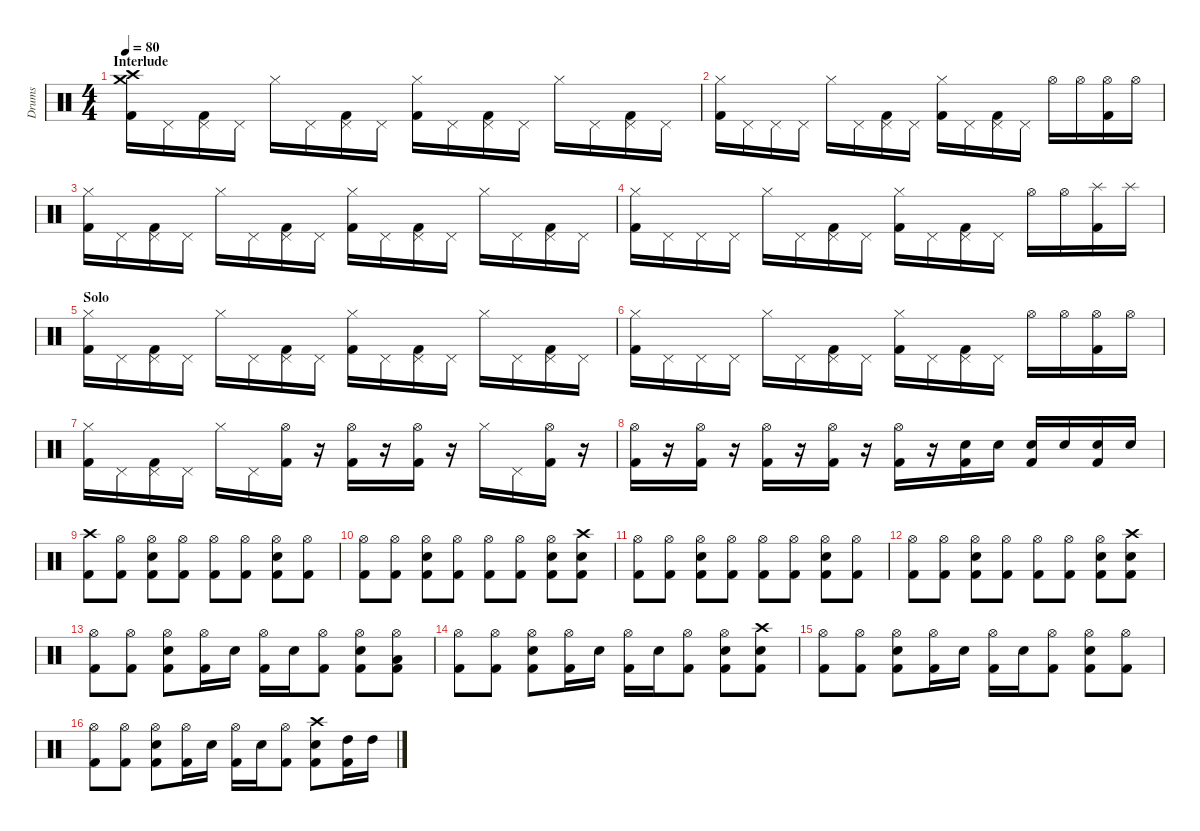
\hideDynamics
\bracketExtendMode nobrackets
\otherSystemsTrackNameOrientation horizontal
\track ("Drumkit" "Drums") {instrument percussion}
\staff {score}
\articulation defaults
\ts (4 4)
\section ("" "Interlude")
\tempo 80
\clef neutral
\ks c
("Kick (hit) 2" "Crash high (hit)" "Crash medium (hit)").16{dy f beam Down} "Pedal Hi-Hat (hit)".16{beam Down} ("Kick (hit) 2" "Pedal Hi-Hat (hit)").16{beam Down} "Pedal Hi-Hat (hit)".16{beam Down} "Hi-Hat (closed)".16{beam Down} "Pedal Hi-Hat (hit)".16{beam Down} ("Kick (hit) 2" "Pedal Hi-Hat (hit)").16{beam Down} "Pedal Hi-Hat (hit)".16{beam Down} ("Kick (hit) 2" "Hi-Hat (closed)").16{beam Down} "Pedal Hi-Hat (hit)".16{beam Down} ("Kick (hit) 2" "Pedal Hi-Hat (hit)").16{beam Down} "Pedal Hi-Hat (hit)".16{beam Down} "Hi-Hat (closed)".16{beam Down} "Pedal Hi-Hat (hit)".16{beam Down} ("Kick (hit) 2" "Pedal Hi-Hat (hit)").16{beam Down} "Pedal Hi-Hat (hit)".16{beam Down} |
("Kick (hit) 2" "Hi-Hat (closed)").16{beam Down} "Pedal Hi-Hat (hit)".16{beam Down} "Pedal Hi-Hat (hit)".16{beam Down} "Pedal Hi-Hat (hit)".16{beam Down} "Hi-Hat (closed)".16{beam Down} "Pedal Hi-Hat (hit)".16{beam Down} ("Kick (hit) 2" "Pedal Hi-Hat (hit)").16{beam Down} "Pedal Hi-Hat (hit)".16{beam Down} ("Kick (hit) 2" "Hi-Hat (closed)").16{beam Down} "Pedal Hi-Hat (hit)".16{beam Down} ("Kick (hit) 2" "Pedal Hi-Hat (hit)").16{beam Down} "Pedal Hi-Hat (hit)".16{beam Down} "Hi-Hat (open)".16{beam Down} "Hi-Hat (open)".16{beam Down} ("Kick (hit) 2" "Hi-Hat (open)").16{beam Down} "Hi-Hat (open)".16{beam Down} |
("Kick (hit) 2" "Hi-Hat (closed)").16{beam Down} "Pedal Hi-Hat (hit)".16{beam Down} ("Kick (hit) 2" "Pedal Hi-Hat (hit)").16{beam Down} "Pedal Hi-Hat (hit)".16{beam Down} "Hi-Hat (closed)".16{beam Down} "Pedal Hi-Hat (hit)".16{beam Down} ("Kick (hit) 2" "Pedal Hi-Hat (hit)").16{beam Down} "Pedal Hi-Hat (hit)".16{beam Down} ("Kick (hit) 2" "Hi-Hat (closed)").16{beam Down} "Pedal Hi-Hat (hit)".16{beam Down} ("Kick (hit) 2" "Pedal Hi-Hat (hit)").16{beam Down} "Pedal Hi-Hat (hit)".16{beam Down} "Hi-Hat (closed)".16{beam Down} "Pedal Hi-Hat (hit)".16{beam Down} ("Kick (hit) 2" "Pedal Hi-Hat (hit)").16{beam Down} "Pedal Hi-Hat (hit)".16{beam Down} |
("Kick (hit) 2" "Hi-Hat (closed)").16{beam Down} "Pedal Hi-Hat (hit)".16{beam Down} "Pedal Hi-Hat (hit)".16{beam Down} "Pedal Hi-Hat (hit)".16{beam Down} "Hi-Hat (closed)".16{beam Down} "Pedal Hi-Hat (hit)".16{beam Down} ("Kick (hit) 2" "Pedal Hi-Hat (hit)").16{beam Down} "Pedal Hi-Hat (hit)".16{beam Down} ("Kick (hit) 2" "Hi-Hat (closed)").16{beam Down} "Pedal Hi-Hat (hit)".16{beam Down} ("Kick (hit) 2" "Pedal Hi-Hat (hit)").16{beam Down} "Pedal Hi-Hat (hit)".16{beam Down} "Hi-Hat (open)".16{beam Down} "Hi-Hat (open)".16{beam Down} ("Kick (hit) 2" "Splash (hit)").16{beam Down} "Splash (hit)".16{beam Down} |
\section ("" "Solo")
("Kick (hit) 2" "Hi-Hat (closed)").16{beam Down} "Pedal Hi-Hat (hit)".16{beam Down} ("Kick (hit) 2" "Pedal Hi-Hat (hit)").16{beam Down} "Pedal Hi-Hat (hit)".16{beam Down} "Hi-Hat (closed)".16{beam Down} "Pedal Hi-Hat (hit)".16{beam Down} ("Kick (hit) 2" "Pedal Hi-Hat (hit)").16{beam Down} "Pedal Hi-Hat (hit)".16{beam Down} ("Kick (hit) 2" "Hi-Hat (closed)").16{beam Down} "Pedal Hi-Hat (hit)".16{beam Down} ("Kick (hit) 2" "Pedal Hi-Hat (hit)").16{beam Down} "Pedal Hi-Hat (hit)".16{beam Down} "Hi-Hat (closed)".16{beam Down} "Pedal Hi-Hat (hit)".16{beam Down} ("Kick (hit) 2" "Pedal Hi-Hat (hit)").16{beam Down} "Pedal Hi-Hat (hit)".16{beam Down} |
("Kick (hit) 2" "Hi-Hat (closed)").16{beam Down} "Pedal Hi-Hat (hit)".16{beam Down} "Pedal Hi-Hat (hit)".16{beam Down} "Pedal Hi-Hat (hit)".16{beam Down} "Hi-Hat (closed)".16{beam Down} "Pedal Hi-Hat (hit)".16{beam Down} ("Kick (hit) 2" "Pedal Hi-Hat (hit)").16{beam Down} "Pedal Hi-Hat (hit)".16{beam Down} ("Kick (hit) 2" "Hi-Hat (closed)").16{beam Down} "Pedal Hi-Hat (hit)".16{beam Down} ("Kick (hit) 2" "Pedal Hi-Hat (hit)").16{beam Down} "Pedal Hi-Hat (hit)".16{beam Down} "Hi-Hat (open)".16{beam Down} "Hi-Hat (open)".16{beam Down} ("Kick (hit) 2" "Hi-Hat (open)").16{beam Down} "Hi-Hat (open)".16{beam Down} |
("Kick (hit) 2" "Hi-Hat (closed)").16{beam Down} "Pedal Hi-Hat (hit)".16{beam Down} ("Kick (hit) 2" "Pedal Hi-Hat (hit)").16{beam Down} "Pedal Hi-Hat (hit)".16{beam Down} "Hi-Hat (closed)".16{beam Down} "Pedal Hi-Hat (hit)".16{beam Down} ("Kick (hit) 2" "Hi-Hat (open)").16{beam Down} r.16{beam Down} ("Kick (hit) 2" "Hi-Hat (open)").16{beam Down} r.16{beam Down} ("Kick (hit) 2" "Hi-Hat (open)").16{beam Down} r.16{beam Down} "Hi-Hat (closed)".16{beam Down} "Pedal Hi-Hat (hit)".16{beam Down} ("Kick (hit) 2" "Hi-Hat (open)").16{beam Down} r.16{beam Down} |
("Kick (hit) 2" "Hi-Hat (open)").16{beam Down} r.16{beam Down} ("Kick (hit) 2" "Hi-Hat (open)").16{beam Down} r.16{beam Down} ("Kick (hit) 2" "Hi-Hat (open)").16{beam Down} r.16{beam Down} ("Kick (hit) 2" "Hi-Hat (open)").16{beam Down} r.16{beam Down} ("Kick (hit) 2" "Hi-Hat (open)").16{beam Down} r.16{beam Down} ("Kick (hit) 2" "Snare (hit) 2").16{beam Down} "Snare (hit) 2".16{beam Down} ("Kick (hit) 2" "Snare (hit) 2").16{beam Up} "Snare (hit) 2".16{beam Up} ("Kick (hit) 2" "Snare (hit) 2").16{beam Up} "Snare (hit) 2".16{beam Up} |
("Crash high (hit)" "Kick (hit) 2").8{beam Down} ("Hi-Hat (open)" "Kick (hit) 2").8{beam Down} ("Snare (hit) 2" "Hi-Hat (open)" "Kick (hit) 2").8{beam Down} ("Hi-Hat (open)" "Kick (hit) 2").8{beam Down} ("Hi-Hat (open)" "Kick (hit) 2").8{beam Down} ("Hi-Hat (open)" "Kick (hit) 2").8{beam Down} ("Snare (hit) 2" "Hi-Hat (open)" "Kick (hit) 2").8{beam Down} ("Hi-Hat (open)" "Kick (hit) 2").8{beam Down} |
("Hi-Hat (open)" "Kick (hit) 2").8{beam Down} ("Hi-Hat (open)" "Kick (hit) 2").8{beam Down} ("Snare (hit) 2" "Hi-Hat (open)" "Kick (hit) 2").8{beam Down} ("Hi-Hat (open)" "Kick (hit) 2").8{beam Down} ("Hi-Hat (open)" "Kick (hit) 2").8{beam Down} ("Hi-Hat (open)" "Kick (hit) 2").8{beam Down} ("Snare (hit) 2" "Hi-Hat (open)" "Kick (hit) 2").8{beam Down} ("Snare (hit) 2" "Crash high (hit)" "Kick (hit) 2").8{beam Down} |
("Hi-Hat (open)" "Kick (hit) 2").8{beam Down} ("Hi-Hat (open)" "Kick (hit) 2").8{beam Down} ("Snare (hit) 2" "Hi-Hat (open)" "Kick (hit) 2").8{beam Down} ("Hi-Hat (open)" "Kick (hit) 2").8{beam Down} ("Hi-Hat (open)" "Kick (hit) 2").8{beam Down} ("Hi-Hat (open)" "Kick (hit) 2").8{beam Down} ("Snare (hit) 2" "Hi-Hat (open)" "Kick (hit) 2").8{beam Down} ("Hi-Hat (open)" "Kick (hit) 2").8{beam Down} |
("Hi-Hat (open)" "Kick (hit) 2").8{beam Down} ("Hi-Hat (open)" "Kick (hit) 2").8{beam Down} ("Snare (hit) 2" "Hi-Hat (open)" "Kick (hit) 2").8{beam Down} ("Hi-Hat (open)" "Kick (hit) 2").8{beam Down} ("Hi-Hat (open)" "Kick (hit) 2").8{beam Down} ("Hi-Hat (open)" "Kick (hit) 2").8{beam Down} ("Snare (hit) 2" "Hi-Hat (open)" "Kick (hit) 2").8{beam Down} ("Snare (hit) 2" "Crash high (hit)" "Kick (hit) 2").8{beam Down} |
("Hi-Hat (open)" "Kick (hit) 2").8{beam Down} ("Hi-Hat (open)" "Kick (hit) 2").8{beam Down} ("Snare (hit) 2" "Hi-Hat (open)" "Kick (hit) 2").8{beam Down} ("Hi-Hat (open)" "Kick (hit) 2").16{beam Down} "Snare (hit) 2".16{beam Down} ("Hi-Hat (open)" "Kick (hit) 2").16{beam Down} "Snare (hit) 2".16{beam Down} ("Hi-Hat (open)" "Kick (hit) 2").8{beam Down} ("Snare (hit) 2" "Hi-Hat (open)" "Kick (hit) 2").8{beam Down} ("Low Tom (hit)" "Hi-Hat (open)" "Kick (hit) 2").8{beam Down} |
("Hi-Hat (open)" "Kick (hit) 2").8{beam Down} ("Hi-Hat (open)" "Kick (hit) 2").8{beam Down} ("Snare (hit) 2" "Hi-Hat (open)" "Kick (hit) 2").8{beam Down} ("Hi-Hat (open)" "Kick (hit) 2").16{beam Down} "Snare (hit) 2".16{beam Down} ("Hi-Hat (open)" "Kick (hit) 2").16{beam Down} "Snare (hit) 2".16{beam Down} ("Hi-Hat (open)" "Kick (hit) 2").8{beam Down} ("Snare (hit) 2" "Hi-Hat (open)" "Kick (hit) 2").8{beam Down} ("Snare (hit) 2" "Crash high (hit)" "Kick (hit) 2").8{beam Down} |
("Hi-Hat (open)" "Kick (hit) 2").8{beam Down} ("Hi-Hat (open)" "Kick (hit) 2").8{beam Down} ("Snare (hit) 2" "Hi-Hat (open)" "Kick (hit) 2").8{beam Down} ("Hi-Hat (open)" "Kick (hit) 2").16{beam Down} "Snare (hit) 2".16{beam Down} ("Hi-Hat (open)" "Kick (hit) 2").16{beam Down} "Snare (hit) 2".16{beam Down} ("Hi-Hat (open)" "Kick (hit) 2").8{beam Down} ("Snare (hit) 2" "Hi-Hat (open)" "Kick (hit) 2").8{beam Down} ("Hi-Hat (open)" "Kick (hit) 2").8{beam Down} |
("Hi-Hat (open)" "Kick (hit) 2").8{beam Down} ("Hi-Hat (open)" "Kick (hit) 2").8{beam Down} ("Snare (hit) 2" "Hi-Hat (open)" "Kick (hit) 2").8{beam Down} ("Hi-Hat (open)" "Kick (hit) 2").16{beam Down} "Snare (hit) 2".16{beam Down} ("Hi-Hat (open)" "Kick (hit) 2").16{beam Down} "Snare (hit) 2".16{beam Down} ("Hi-Hat (open)" "Kick (hit) 2").8{beam Down} ("Snare (hit) 2" "Crash high (hit)" "Kick (hit) 2").8{beam Down} ("High Tom (hit)" "Kick (hit) 2").16{beam Down} "High Tom (hit)".16{beam Down}
